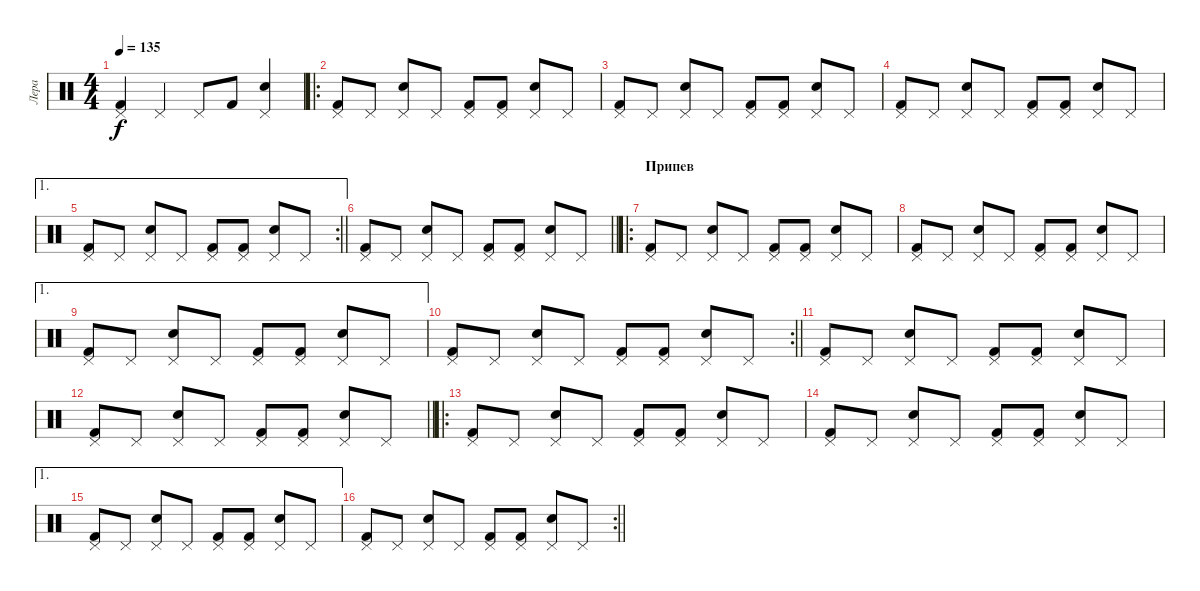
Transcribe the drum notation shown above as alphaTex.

\track ("Лера" "Лера") {instrument percussion}
\staff {score}
\articulation defaults
\ts (4 4)
\tempo 135
\clef neutral
\ks c
("Pedal Hi-Hat (hit)" "Kick (hit) 2").4{dy f} "Pedal Hi-Hat (hit)".4 "Pedal Hi-Hat (hit)".8 "Kick (hit) 2".8 ("Pedal Hi-Hat (hit)" "Snare (hit) 2").4 |
\ro
("Pedal Hi-Hat (hit)" "Kick (hit) 2").8 "Pedal Hi-Hat (hit)".8 ("Pedal Hi-Hat (hit)" "Snare (hit) 2").8 "Pedal Hi-Hat (hit)".8 ("Pedal Hi-Hat (hit)" "Kick (hit) 2").8 ("Pedal Hi-Hat (hit)" "Kick (hit) 2").8 ("Pedal Hi-Hat (hit)" "Snare (hit) 2").8 "Pedal Hi-Hat (hit)".8 |
("Pedal Hi-Hat (hit)" "Kick (hit) 2").8 "Pedal Hi-Hat (hit)".8 ("Pedal Hi-Hat (hit)" "Snare (hit) 2").8 "Pedal Hi-Hat (hit)".8 ("Pedal Hi-Hat (hit)" "Kick (hit) 2").8 ("Pedal Hi-Hat (hit)" "Kick (hit) 2").8 ("Pedal Hi-Hat (hit)" "Snare (hit) 2").8 "Pedal Hi-Hat (hit)".8 |
("Pedal Hi-Hat (hit)" "Kick (hit) 2").8 "Pedal Hi-Hat (hit)".8 ("Pedal Hi-Hat (hit)" "Snare (hit) 2").8 "Pedal Hi-Hat (hit)".8 ("Pedal Hi-Hat (hit)" "Kick (hit) 2").8 ("Pedal Hi-Hat (hit)" "Kick (hit) 2").8 ("Pedal Hi-Hat (hit)" "Snare (hit) 2").8 "Pedal Hi-Hat (hit)".8 |
\ae 1
\rc 2
\barLineRight lightlight
("Pedal Hi-Hat (hit)" "Kick (hit) 2").8 "Pedal Hi-Hat (hit)".8 ("Pedal Hi-Hat (hit)" "Snare (hit) 2").8 "Pedal Hi-Hat (hit)".8 ("Pedal Hi-Hat (hit)" "Kick (hit) 2").8 ("Pedal Hi-Hat (hit)" "Kick (hit) 2").8 ("Pedal Hi-Hat (hit)" "Snare (hit) 2").8 "Pedal Hi-Hat (hit)".8 |
\barLineRight lightlight
("Pedal Hi-Hat (hit)" "Kick (hit) 2").8 "Pedal Hi-Hat (hit)".8 ("Pedal Hi-Hat (hit)" "Snare (hit) 2").8 "Pedal Hi-Hat (hit)".8 ("Pedal Hi-Hat (hit)" "Kick (hit) 2").8 ("Pedal Hi-Hat (hit)" "Kick (hit) 2").8 ("Pedal Hi-Hat (hit)" "Snare (hit) 2").8 "Pedal Hi-Hat (hit)".8 |
\ro
\section ("" "Припев")
("Pedal Hi-Hat (hit)" "Kick (hit) 2").8 "Pedal Hi-Hat (hit)".8 ("Pedal Hi-Hat (hit)" "Snare (hit) 2").8 "Pedal Hi-Hat (hit)".8 ("Pedal Hi-Hat (hit)" "Kick (hit) 2").8 ("Pedal Hi-Hat (hit)" "Kick (hit) 2").8 ("Pedal Hi-Hat (hit)" "Snare (hit) 2").8 "Pedal Hi-Hat (hit)".8 |
("Pedal Hi-Hat (hit)" "Kick (hit) 2").8 "Pedal Hi-Hat (hit)".8 ("Pedal Hi-Hat (hit)" "Snare (hit) 2").8 "Pedal Hi-Hat (hit)".8 ("Pedal Hi-Hat (hit)" "Kick (hit) 2").8 ("Pedal Hi-Hat (hit)" "Kick (hit) 2").8 ("Pedal Hi-Hat (hit)" "Snare (hit) 2").8 "Pedal Hi-Hat (hit)".8 |
\ae 1
("Pedal Hi-Hat (hit)" "Kick (hit) 2").8 "Pedal Hi-Hat (hit)".8 ("Pedal Hi-Hat (hit)" "Snare (hit) 2").8 "Pedal Hi-Hat (hit)".8 ("Pedal Hi-Hat (hit)" "Kick (hit) 2").8 ("Pedal Hi-Hat (hit)" "Kick (hit) 2").8 ("Pedal Hi-Hat (hit)" "Snare (hit) 2").8 "Pedal Hi-Hat (hit)".8 |
\rc 2
\barLineRight lightlight
("Pedal Hi-Hat (hit)" "Kick (hit) 2").8 "Pedal Hi-Hat (hit)".8 ("Pedal Hi-Hat (hit)" "Snare (hit) 2").8 "Pedal Hi-Hat (hit)".8 ("Pedal Hi-Hat (hit)" "Kick (hit) 2").8 ("Pedal Hi-Hat (hit)" "Kick (hit) 2").8 ("Pedal Hi-Hat (hit)" "Snare (hit) 2").8 "Pedal Hi-Hat (hit)".8 |
("Pedal Hi-Hat (hit)" "Kick (hit) 2").8 "Pedal Hi-Hat (hit)".8 ("Pedal Hi-Hat (hit)" "Snare (hit) 2").8 "Pedal Hi-Hat (hit)".8 ("Pedal Hi-Hat (hit)" "Kick (hit) 2").8 ("Pedal Hi-Hat (hit)" "Kick (hit) 2").8 ("Pedal Hi-Hat (hit)" "Snare (hit) 2").8 "Pedal Hi-Hat (hit)".8 |
\barLineRight lightlight
("Pedal Hi-Hat (hit)" "Kick (hit) 2").8 "Pedal Hi-Hat (hit)".8 ("Pedal Hi-Hat (hit)" "Snare (hit) 2").8 "Pedal Hi-Hat (hit)".8 ("Pedal Hi-Hat (hit)" "Kick (hit) 2").8 ("Pedal Hi-Hat (hit)" "Kick (hit) 2").8 ("Pedal Hi-Hat (hit)" "Snare (hit) 2").8 "Pedal Hi-Hat (hit)".8 |
\ro
("Pedal Hi-Hat (hit)" "Kick (hit) 2").8 "Pedal Hi-Hat (hit)".8 ("Pedal Hi-Hat (hit)" "Snare (hit) 2").8 "Pedal Hi-Hat (hit)".8 ("Pedal Hi-Hat (hit)" "Kick (hit) 2").8 ("Pedal Hi-Hat (hit)" "Kick (hit) 2").8 ("Pedal Hi-Hat (hit)" "Snare (hit) 2").8 "Pedal Hi-Hat (hit)".8 |
("Pedal Hi-Hat (hit)" "Kick (hit) 2").8 "Pedal Hi-Hat (hit)".8 ("Pedal Hi-Hat (hit)" "Snare (hit) 2").8 "Pedal Hi-Hat (hit)".8 ("Pedal Hi-Hat (hit)" "Kick (hit) 2").8 ("Pedal Hi-Hat (hit)" "Kick (hit) 2").8 ("Pedal Hi-Hat (hit)" "Snare (hit) 2").8 "Pedal Hi-Hat (hit)".8 |
\ae 1
("Pedal Hi-Hat (hit)" "Kick (hit) 2").8 "Pedal Hi-Hat (hit)".8 ("Pedal Hi-Hat (hit)" "Snare (hit) 2").8 "Pedal Hi-Hat (hit)".8 ("Pedal Hi-Hat (hit)" "Kick (hit) 2").8 ("Pedal Hi-Hat (hit)" "Kick (hit) 2").8 ("Pedal Hi-Hat (hit)" "Snare (hit) 2").8 "Pedal Hi-Hat (hit)".8 |
\rc 2
\barLineRight lightlight
("Pedal Hi-Hat (hit)" "Kick (hit) 2").8 "Pedal Hi-Hat (hit)".8 ("Pedal Hi-Hat (hit)" "Snare (hit) 2").8 "Pedal Hi-Hat (hit)".8 ("Pedal Hi-Hat (hit)" "Kick (hit) 2").8 ("Pedal Hi-Hat (hit)" "Kick (hit) 2").8 ("Pedal Hi-Hat (hit)" "Snare (hit) 2").8 "Pedal Hi-Hat (hit)".8
